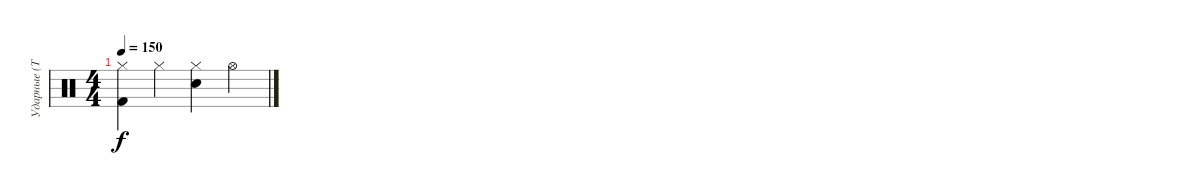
\track ("Ударные (Тоша)" "Ударные (Т") {instrument percussion}
\staff {score}
\articulation defaults
\ts (4 4)
\tempo 150
\clef neutral
\ks c
("Hi-Hat (closed)" "Kick (hit) 2").4{dy f} "Hi-Hat (closed)".4 ("Hi-Hat (closed)" "Electric Snare (hit)").4 "Hi-Hat (open)".4
